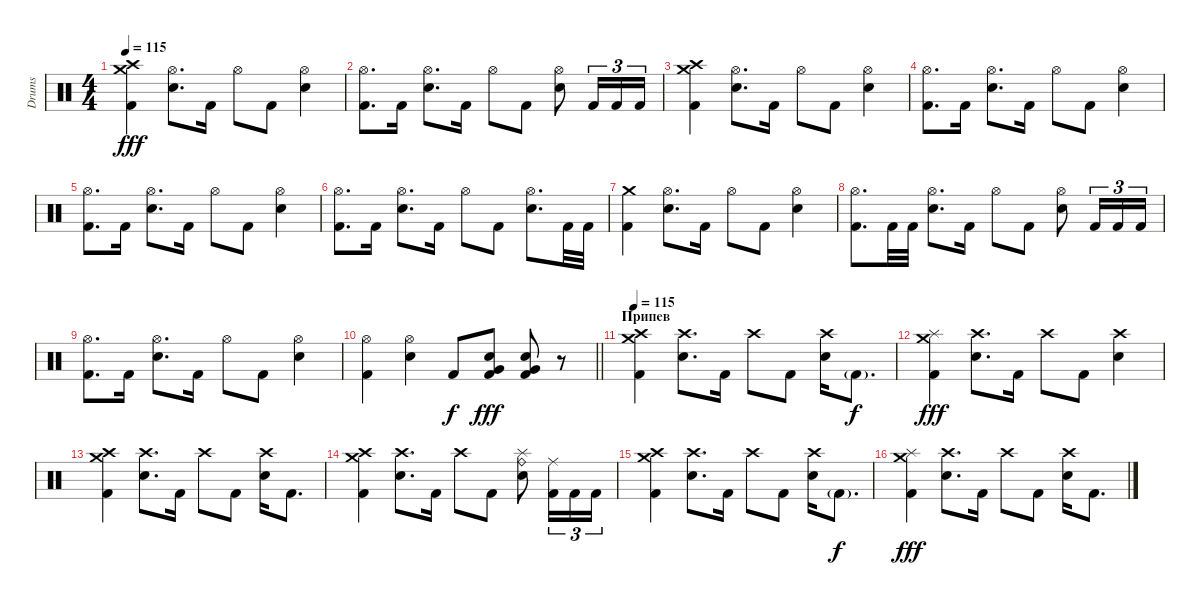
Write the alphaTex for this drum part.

\track ("Drums " "Drums ") {instrument percussion}
\staff {score}
\articulation defaults
\ts (4 4)
\tempo 115
\clef neutral
\ks c
("Crash medium (hit)" "Crash high (hit)" "Kick (hit) 2").4{dy fff} ("Hi-Hat (open)" "Electric Snare (hit)").8{d} "Kick (hit) 2".16 "Hi-Hat (open)".8 "Kick (hit) 2".8 ("Hi-Hat (open)" "Electric Snare (hit)").4 |
("Hi-Hat (open)" "Kick (hit) 2").8{d} "Kick (hit) 2".16 ("Hi-Hat (open)" "Electric Snare (hit)").8{d} "Kick (hit) 2".16 "Hi-Hat (open)".8 "Kick (hit) 2".8 ("Hi-Hat (open)" "Electric Snare (hit)").8 "Kick (hit) 2".16{tu (3 2)} "Kick (hit) 2".16{tu (3 2)} "Kick (hit) 2".16{tu (3 2)} |
("Crash medium (hit)" "Crash high (hit)" "Kick (hit) 2").4 ("Hi-Hat (open)" "Electric Snare (hit)").8{d} "Kick (hit) 2".16 "Hi-Hat (open)".8 "Kick (hit) 2".8 ("Hi-Hat (open)" "Electric Snare (hit)").4 |
("Hi-Hat (open)" "Kick (hit) 2").8{d} "Kick (hit) 2".16 ("Hi-Hat (open)" "Electric Snare (hit)").8{d} "Kick (hit) 2".16 "Hi-Hat (open)".8 "Kick (hit) 2".8 ("Hi-Hat (open)" "Electric Snare (hit)").4 |
("Hi-Hat (open)" "Kick (hit) 2").8{d} "Kick (hit) 2".16 ("Hi-Hat (open)" "Electric Snare (hit)").8{d} "Kick (hit) 2".16 "Hi-Hat (open)".8 "Kick (hit) 2".8 ("Hi-Hat (open)" "Electric Snare (hit)").4 |
("Hi-Hat (open)" "Kick (hit) 2").8{d} "Kick (hit) 2".16 ("Hi-Hat (open)" "Electric Snare (hit)").8{d} "Kick (hit) 2".16 "Hi-Hat (open)".8 "Kick (hit) 2".8 ("Hi-Hat (open)" "Electric Snare (hit)").8{d} "Kick (hit) 2".32 "Kick (hit) 2".32 |
("Crash medium (hit)" "Kick (hit) 2").4 ("Hi-Hat (open)" "Electric Snare (hit)").8{d} "Kick (hit) 2".16 "Hi-Hat (open)".8 "Kick (hit) 2".8 ("Hi-Hat (open)" "Electric Snare (hit)").4 |
("Hi-Hat (open)" "Kick (hit) 2").8{d} "Kick (hit) 2".32 "Kick (hit) 2".32 ("Hi-Hat (open)" "Electric Snare (hit)").8{d} "Kick (hit) 2".16 "Hi-Hat (open)".8 "Kick (hit) 2".8 ("Hi-Hat (open)" "Electric Snare (hit)").8 "Kick (hit) 2".16{tu (3 2)} "Kick (hit) 2".16{tu (3 2)} "Kick (hit) 2".16{tu (3 2)} |
("Hi-Hat (open)" "Kick (hit) 2").8{d} "Kick (hit) 2".16 ("Hi-Hat (open)" "Electric Snare (hit)").8{d} "Kick (hit) 2".16 "Hi-Hat (open)".8 "Kick (hit) 2".8 ("Hi-Hat (open)" "Electric Snare (hit)").4 |
\barLineRight lightlight
("Hi-Hat (open)" "Kick (hit) 2").4 ("Hi-Hat (open)" "Electric Snare (hit)").4 "Kick (hit) 2".8{dy f} ("Very Low Tom (hit)" "Electric Snare (hit)" "Kick (hit) 2").8{dy fff} ("Very Low Tom (hit)" "Electric Snare (hit)" "Kick (hit) 2").8 r.8 |
\section ("" "Припев")
\tempo 115
("Crash medium (hit)" "Crash high (hit)" "Kick (hit) 2").4 ("Crash high (hit)" "Electric Snare (hit)").8{d} "Kick (hit) 2".16 "Crash high (hit)".8 "Kick (hit) 2".8 ("Crash high (hit)" "Electric Snare (hit)").16 "Kick (hit) 2"{g}.8{d dy f} |
("Crash medium (hit)" "Splash (hit)" "Kick (hit) 2").4{dy fff} ("Crash high (hit)" "Electric Snare (hit)").8{d} "Kick (hit) 2".16 "Crash high (hit)".8 "Kick (hit) 2".8 ("Crash high (hit)" "Electric Snare (hit)").4 |
("Crash medium (hit)" "Crash high (hit)" "Kick (hit) 2").4 ("Crash high (hit)" "Electric Snare (hit)").8{d} "Kick (hit) 2".16 "Crash high (hit)".8 "Kick (hit) 2".8 ("Crash high (hit)" "Electric Snare (hit)").16 "Kick (hit) 2".8{d} |
("Crash medium (hit)" "Crash high (hit)" "Kick (hit) 2").4 ("Crash high (hit)" "Electric Snare (hit)").8{d} "Kick (hit) 2".16 "Crash high (hit)".8 "Kick (hit) 2".8 ("Ride (bell)" "Splash (hit)" "Electric Snare (hit)").8 ("Ride (middle)" "Kick (hit) 2").16{tu (3 2)} "Kick (hit) 2".16{tu (3 2)} "Kick (hit) 2".16{tu (3 2)} |
("Crash medium (hit)" "Crash high (hit)" "Kick (hit) 2").4 ("Crash high (hit)" "Electric Snare (hit)").8{d} "Kick (hit) 2".16 "Crash high (hit)".8 "Kick (hit) 2".8 ("Crash high (hit)" "Electric Snare (hit)").16 "Kick (hit) 2"{g}.8{d dy f} |
("Crash medium (hit)" "Splash (hit)" "Kick (hit) 2").4{dy fff} ("Crash high (hit)" "Electric Snare (hit)").8{d} "Kick (hit) 2".16 "Crash high (hit)".8 "Kick (hit) 2".8 ("Crash high (hit)" "Electric Snare (hit)").16 "Kick (hit) 2".8{d}
